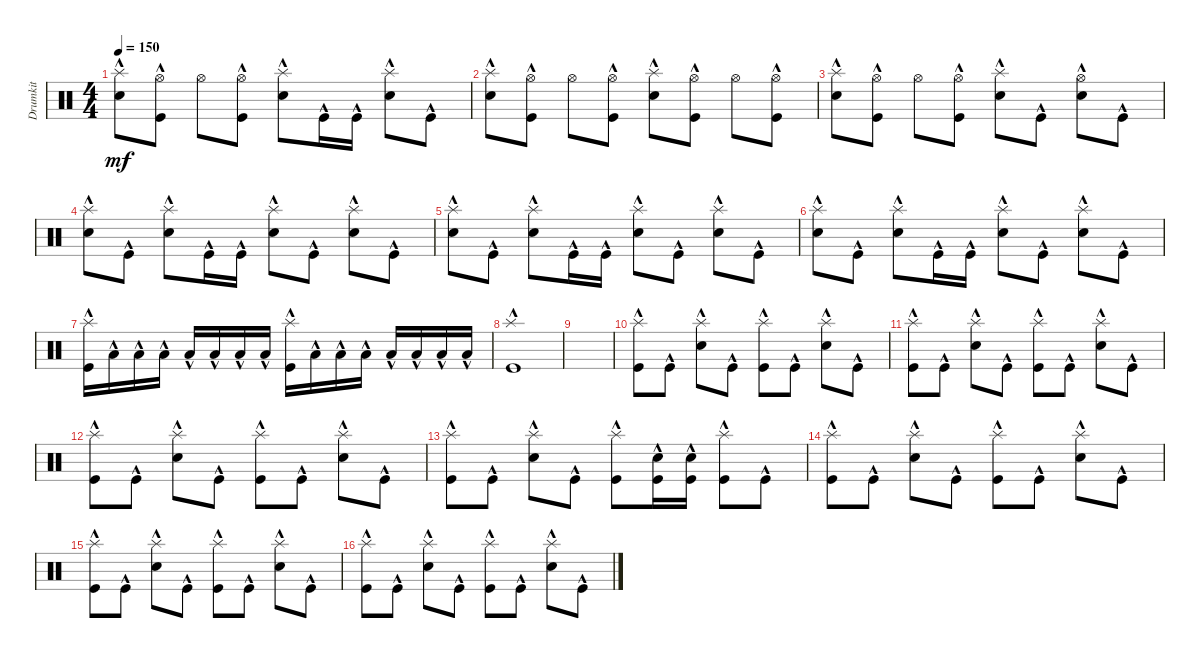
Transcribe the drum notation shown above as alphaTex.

\track ("Drumkit" "Drumkit") {instrument percussion}
\staff {score}
\articulation defaults
\ts (4 4)
\tempo 150
\clef neutral
\ks c
("Snare (hit) 2"{hac} "Splash (hit)"{hac}).8{dy mf} ("Kick (hit)"{hac} "Hi-Hat (open)").8 "Hi-Hat (open)".8 ("Kick (hit)"{hac} "Hi-Hat (open)").8 ("Snare (hit) 2"{hac} "Splash (hit)"{hac}).8 "Kick (hit)"{hac}.16 "Kick (hit)"{hac}.16 ("Snare (hit) 2"{hac} "Splash (hit)"{hac}).8 "Kick (hit)"{hac}.8 |
("Snare (hit) 2"{hac} "Splash (hit)"{hac}).8 ("Kick (hit)"{hac} "Hi-Hat (open)").8 "Hi-Hat (open)".8 ("Kick (hit)"{hac} "Hi-Hat (open)").8 ("Snare (hit) 2"{hac} "Splash (hit)"{hac}).8 ("Kick (hit)"{hac} "Hi-Hat (open)").8 "Hi-Hat (open)".8 ("Kick (hit)"{hac} "Hi-Hat (open)").8 |
("Snare (hit) 2"{hac} "Splash (hit)"{hac}).8 ("Kick (hit)"{hac} "Hi-Hat (open)").8 "Hi-Hat (open)".8 ("Kick (hit)"{hac} "Hi-Hat (open)").8 ("Snare (hit) 2"{hac} "Splash (hit)"{hac}).8 "Kick (hit)"{hac}.8 ("Snare (hit) 2"{hac} "Hi-Hat (open)").8 "Kick (hit)"{hac}.8 |
("Snare (hit) 2"{hac} "Splash (hit)"{hac}).8 "Kick (hit)"{hac}.8 ("Snare (hit) 2"{hac} "Splash (hit)"{hac}).8 "Kick (hit)"{hac}.16 "Kick (hit)"{hac}.16 ("Snare (hit) 2"{hac} "Splash (hit)"{hac}).8 "Kick (hit)"{hac}.8 ("Snare (hit) 2"{hac} "Splash (hit)"{hac}).8 "Kick (hit)"{hac}.8 |
("Snare (hit) 2"{hac} "Splash (hit)"{hac}).8 "Kick (hit)"{hac}.8 ("Snare (hit) 2"{hac} "Splash (hit)"{hac}).8 "Kick (hit)"{hac}.16 "Kick (hit)"{hac}.16 ("Snare (hit) 2"{hac} "Splash (hit)"{hac}).8 "Kick (hit)"{hac}.8 ("Snare (hit) 2"{hac} "Splash (hit)"{hac}).8 "Kick (hit)"{hac}.8 |
("Snare (hit) 2"{hac} "Splash (hit)"{hac}).8 "Kick (hit)"{hac}.8 ("Snare (hit) 2"{hac} "Splash (hit)"{hac}).8 "Kick (hit)"{hac}.16 "Kick (hit)"{hac}.16 ("Snare (hit) 2"{hac} "Splash (hit)"{hac}).8 "Kick (hit)"{hac}.8 ("Snare (hit) 2"{hac} "Splash (hit)"{hac}).8 "Kick (hit)"{hac}.8 |
("Kick (hit)"{hac} "Splash (hit)"{hac}).16 "Low Tom (hit)"{hac}.16 "Low Tom (hit)"{hac}.16 "Low Tom (hit)"{hac}.16 "Low Tom (hit)"{hac}.16 "Low Tom (hit)"{hac}.16 "Low Tom (hit)"{hac}.16 "Low Tom (hit)"{hac}.16 ("Kick (hit)"{hac} "Splash (hit)"{hac}).16 "Low Tom (hit)"{hac}.16 "Low Tom (hit)"{hac}.16 "Low Tom (hit)"{hac}.16 "Low Tom (hit)"{hac}.16 "Low Tom (hit)"{hac}.16 "Low Tom (hit)"{hac}.16 "Low Tom (hit)"{hac}.16 |
("Kick (hit)"{hac} "Splash (hit)"{hac}).1 |
|
("Kick (hit)"{hac} "Splash (hit)"{hac}).8 "Kick (hit)"{hac}.8 ("Snare (hit) 2"{hac} "Splash (hit)"{hac}).8 "Kick (hit)"{hac}.8 ("Kick (hit)"{hac} "Splash (hit)"{hac}).8 "Kick (hit)"{hac}.8 ("Snare (hit) 2"{hac} "Splash (hit)"{hac}).8 "Kick (hit)"{hac}.8 |
("Kick (hit)"{hac} "Splash (hit)"{hac}).8 "Kick (hit)"{hac}.8 ("Snare (hit) 2"{hac} "Splash (hit)"{hac}).8 "Kick (hit)"{hac}.8 ("Kick (hit)"{hac} "Splash (hit)"{hac}).8 "Kick (hit)"{hac}.8 ("Snare (hit) 2"{hac} "Splash (hit)"{hac}).8 "Kick (hit)"{hac}.8 |
("Kick (hit)"{hac} "Splash (hit)"{hac}).8 "Kick (hit)"{hac}.8 ("Snare (hit) 2"{hac} "Splash (hit)"{hac}).8 "Kick (hit)"{hac}.8 ("Kick (hit)"{hac} "Splash (hit)"{hac}).8 "Kick (hit)"{hac}.8 ("Snare (hit) 2"{hac} "Splash (hit)"{hac}).8 "Kick (hit)"{hac}.8 |
("Kick (hit)"{hac} "Splash (hit)"{hac}).8 "Kick (hit)"{hac}.8 ("Snare (hit) 2"{hac} "Splash (hit)"{hac}).8 "Kick (hit)"{hac}.8 ("Kick (hit)"{hac} "Splash (hit)"{hac}).8 ("Snare (hit) 2"{hac} "Kick (hit)").16 ("Snare (hit) 2"{hac} "Kick (hit)").16 ("Kick (hit)"{hac} "Splash (hit)"{hac}).8 "Kick (hit)"{hac}.8 |
("Kick (hit)"{hac} "Splash (hit)"{hac}).8 "Kick (hit)"{hac}.8 ("Snare (hit) 2"{hac} "Splash (hit)"{hac}).8 "Kick (hit)"{hac}.8 ("Kick (hit)"{hac} "Splash (hit)"{hac}).8 "Kick (hit)"{hac}.8 ("Snare (hit) 2"{hac} "Splash (hit)"{hac}).8 "Kick (hit)"{hac}.8 |
("Kick (hit)"{hac} "Splash (hit)"{hac}).8 "Kick (hit)"{hac}.8 ("Snare (hit) 2"{hac} "Splash (hit)"{hac}).8 "Kick (hit)"{hac}.8 ("Kick (hit)"{hac} "Splash (hit)"{hac}).8 "Kick (hit)"{hac}.8 ("Snare (hit) 2"{hac} "Splash (hit)"{hac}).8 "Kick (hit)"{hac}.8 |
("Kick (hit)"{hac} "Splash (hit)"{hac}).8 "Kick (hit)"{hac}.8 ("Snare (hit) 2"{hac} "Splash (hit)"{hac}).8 "Kick (hit)"{hac}.8 ("Kick (hit)"{hac} "Splash (hit)"{hac}).8 "Kick (hit)"{hac}.8 ("Snare (hit) 2"{hac} "Splash (hit)"{hac}).8 "Kick (hit)"{hac}.8
